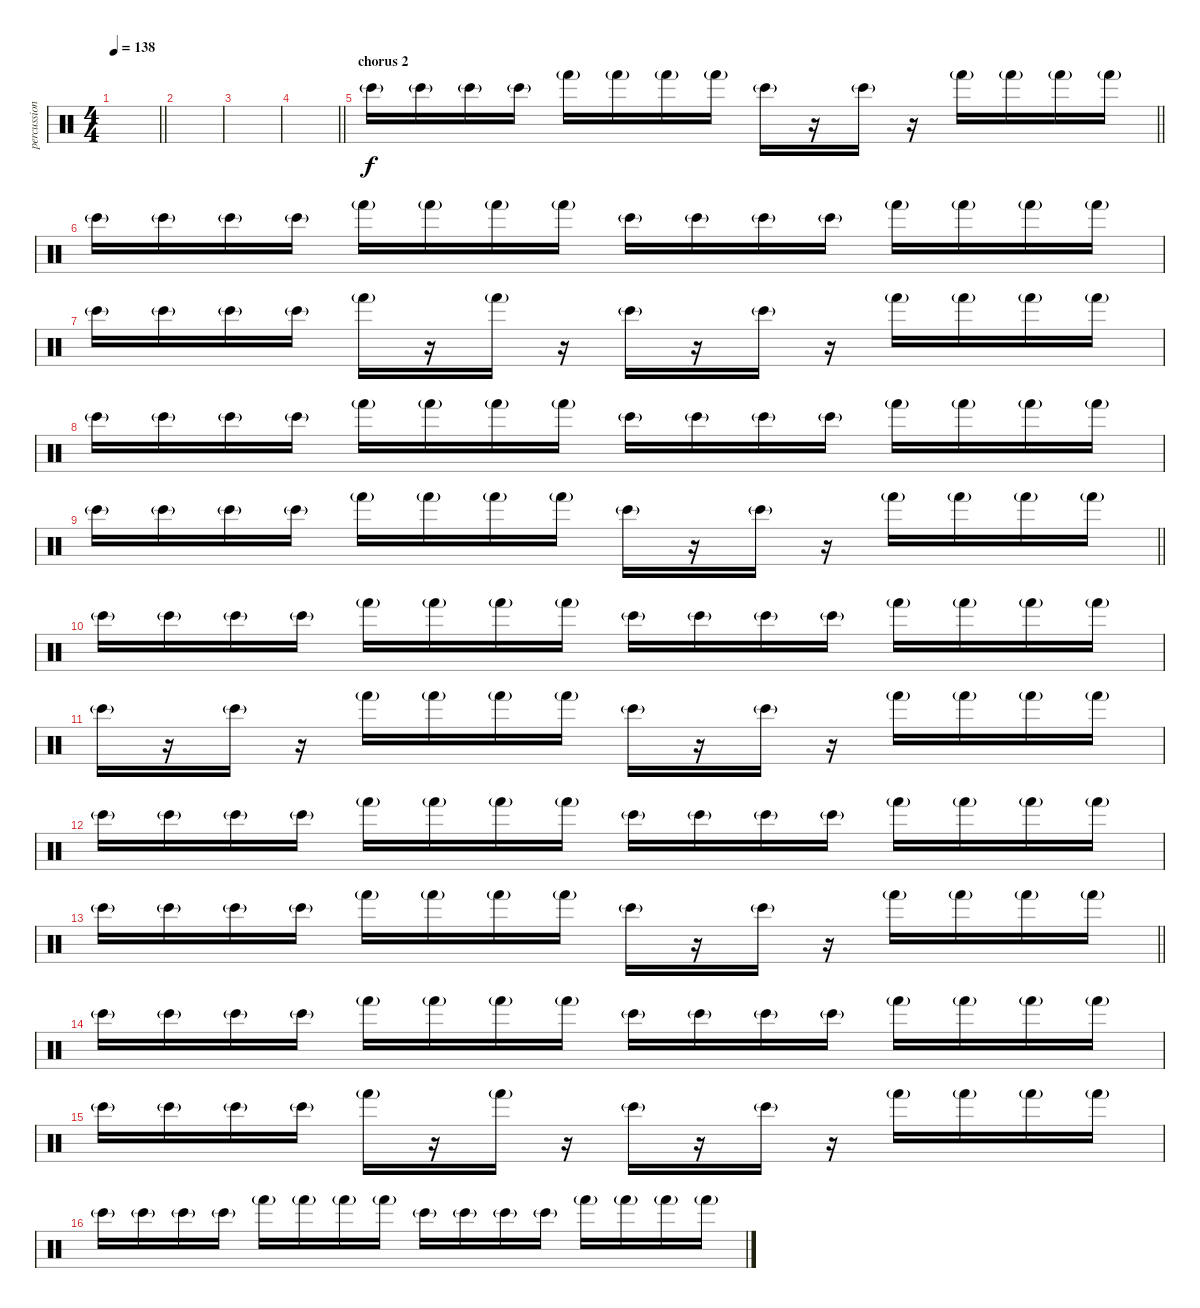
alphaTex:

\track ("percussion" "percussion") {instrument percussion}
\staff {score}
\articulation defaults
\ts (4 4)
\tempo 138
\clef neutral
\barLineRight lightlight
\ks c
|
|
|
\barLineRight lightlight
|
\section ("" "chorus 2")
\barLineRight lightlight "Bongo High (hit)"{g}.16 "Bongo High (hit)"{g}.16 "Bongo High (hit)"{g}.16 "Bongo High (hit)"{g}.16 "Hand (hit)"{g}.16 "Hand (hit)"{g}.16 "Hand (hit)"{g}.16 "Hand (hit)"{g}.16 "Bongo High (hit)"{g}.16
r.16 "Bongo High (hit)"{g}.16 r.16 "Hand (hit)"{g}.16 "Hand (hit)"{g}.16 "Hand (hit)"{g}.16 "Hand (hit)"{g}.16 |
"Bongo High (hit)"{g}.16 "Bongo High (hit)"{g}.16 "Bongo High (hit)"{g}.16 "Bongo High (hit)"{g}.16 "Hand (hit)"{g}.16 "Hand (hit)"{g}.16 "Hand (hit)"{g}.16 "Hand (hit)"{g}.16 "Bongo High (hit)"{g}.16 "Bongo High (hit)"{g}.16 "Bongo High (hit)"{g}.16 "Bongo High (hit)"{g}.16 "Hand (hit)"{g}.16 "Hand (hit)"{g}.16 "Hand (hit)"{g}.16 "Hand (hit)"{g}.16 |
"Bongo High (hit)"{g}.16 "Bongo High (hit)"{g}.16 "Bongo High (hit)"{g}.16 "Bongo High (hit)"{g}.16 "Hand (hit)"{g}.16 r.16 "Hand (hit)"{g}.16 r.16 "Bongo High (hit)"{g}.16 r.16 "Bongo High (hit)"{g}.16 r.16 "Hand (hit)"{g}.16 "Hand (hit)"{g}.16 "Hand (hit)"{g}.16 "Hand (hit)"{g}.16 |
"Bongo High (hit)"{g}.16 "Bongo High (hit)"{g}.16 "Bongo High (hit)"{g}.16 "Bongo High (hit)"{g}.16 "Hand (hit)"{g}.16 "Hand (hit)"{g}.16 "Hand (hit)"{g}.16 "Hand (hit)"{g}.16 "Bongo High (hit)"{g}.16 "Bongo High (hit)"{g}.16 "Bongo High (hit)"{g}.16 "Bongo High (hit)"{g}.16 "Hand (hit)"{g}.16 "Hand (hit)"{g}.16 "Hand (hit)"{g}.16 "Hand (hit)"{g}.16 |
\barLineRight lightlight "Bongo High (hit)"{g}.16 "Bongo High (hit)"{g}.16 "Bongo High (hit)"{g}.16 "Bongo High (hit)"{g}.16 "Hand (hit)"{g}.16 "Hand (hit)"{g}.16 "Hand (hit)"{g}.16 "Hand (hit)"{g}.16 "Bongo High (hit)"{g}.16
r.16 "Bongo High (hit)"{g}.16 r.16 "Hand (hit)"{g}.16 "Hand (hit)"{g}.16 "Hand (hit)"{g}.16 "Hand (hit)"{g}.16 |
"Bongo High (hit)"{g}.16 "Bongo High (hit)"{g}.16 "Bongo High (hit)"{g}.16 "Bongo High (hit)"{g}.16 "Hand (hit)"{g}.16 "Hand (hit)"{g}.16 "Hand (hit)"{g}.16 "Hand (hit)"{g}.16 "Bongo High (hit)"{g}.16 "Bongo High (hit)"{g}.16 "Bongo High (hit)"{g}.16 "Bongo High (hit)"{g}.16 "Hand (hit)"{g}.16 "Hand (hit)"{g}.16 "Hand (hit)"{g}.16 "Hand (hit)"{g}.16 |
"Bongo High (hit)"{g}.16 r.16 "Bongo High (hit)"{g}.16 r.16 "Hand (hit)"{g}.16 "Hand (hit)"{g}.16 "Hand (hit)"{g}.16 "Hand (hit)"{g}.16 "Bongo High (hit)"{g}.16 r.16 "Bongo High (hit)"{g}.16 r.16 "Hand (hit)"{g}.16 "Hand (hit)"{g}.16 "Hand (hit)"{g}.16 "Hand (hit)"{g}.16 |
"Bongo High (hit)"{g}.16 "Bongo High (hit)"{g}.16 "Bongo High (hit)"{g}.16 "Bongo High (hit)"{g}.16 "Hand (hit)"{g}.16 "Hand (hit)"{g}.16 "Hand (hit)"{g}.16 "Hand (hit)"{g}.16 "Bongo High (hit)"{g}.16 "Bongo High (hit)"{g}.16 "Bongo High (hit)"{g}.16 "Bongo High (hit)"{g}.16 "Hand (hit)"{g}.16 "Hand (hit)"{g}.16 "Hand (hit)"{g}.16 "Hand (hit)"{g}.16 |
\barLineRight lightlight "Bongo High (hit)"{g}.16 "Bongo High (hit)"{g}.16 "Bongo High (hit)"{g}.16 "Bongo High (hit)"{g}.16 "Hand (hit)"{g}.16 "Hand (hit)"{g}.16 "Hand (hit)"{g}.16 "Hand (hit)"{g}.16 "Bongo High (hit)"{g}.16
r.16 "Bongo High (hit)"{g}.16 r.16 "Hand (hit)"{g}.16 "Hand (hit)"{g}.16 "Hand (hit)"{g}.16 "Hand (hit)"{g}.16 |
"Bongo High (hit)"{g}.16 "Bongo High (hit)"{g}.16 "Bongo High (hit)"{g}.16 "Bongo High (hit)"{g}.16 "Hand (hit)"{g}.16 "Hand (hit)"{g}.16 "Hand (hit)"{g}.16 "Hand (hit)"{g}.16 "Bongo High (hit)"{g}.16 "Bongo High (hit)"{g}.16 "Bongo High (hit)"{g}.16 "Bongo High (hit)"{g}.16 "Hand (hit)"{g}.16 "Hand (hit)"{g}.16 "Hand (hit)"{g}.16 "Hand (hit)"{g}.16 |
"Bongo High (hit)"{g}.16 "Bongo High (hit)"{g}.16 "Bongo High (hit)"{g}.16 "Bongo High (hit)"{g}.16 "Hand (hit)"{g}.16 r.16 "Hand (hit)"{g}.16 r.16 "Bongo High (hit)"{g}.16 r.16 "Bongo High (hit)"{g}.16 r.16 "Hand (hit)"{g}.16 "Hand (hit)"{g}.16 "Hand (hit)"{g}.16 "Hand (hit)"{g}.16 |
"Bongo High (hit)"{g}.16 "Bongo High (hit)"{g}.16 "Bongo High (hit)"{g}.16 "Bongo High (hit)"{g}.16 "Hand (hit)"{g}.16 "Hand (hit)"{g}.16 "Hand (hit)"{g}.16 "Hand (hit)"{g}.16 "Bongo High (hit)"{g}.16 "Bongo High (hit)"{g}.16 "Bongo High (hit)"{g}.16 "Bongo High (hit)"{g}.16 "Hand (hit)"{g}.16 "Hand (hit)"{g}.16 "Hand (hit)"{g}.16 "Hand (hit)"{g}.16
